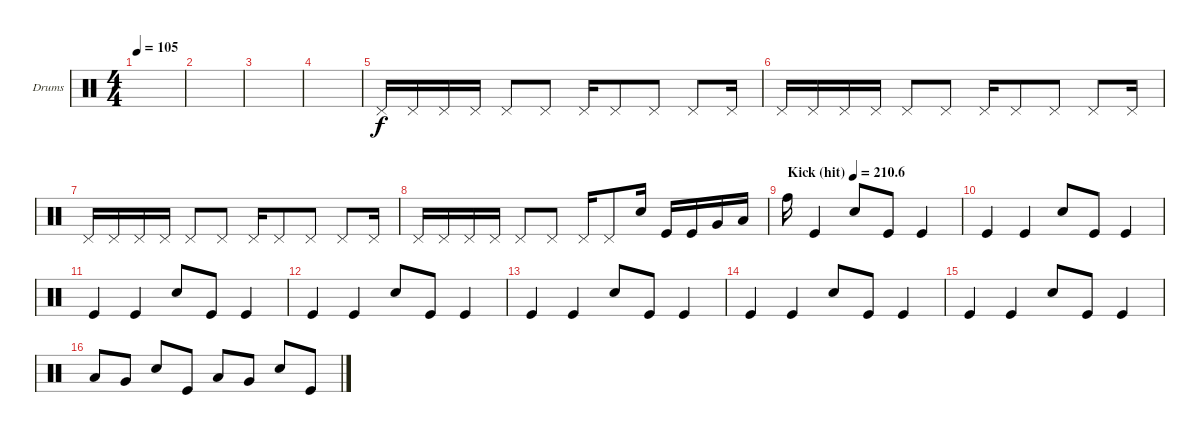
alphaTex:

\defaultSystemsLayout 4
\bracketExtendMode groupsimilarinstruments
\firstSystemTrackNameOrientation horizontal
\otherSystemsTrackNameOrientation horizontal
\track ("Drumkit" "Drums") {instrument percussion}
\staff {score}
\articulation defaults
\ts (4 4)
\tempo 105
\clef neutral
\ks c
|
|
|
|
"Pedal Hi-Hat (hit)".16 "Pedal Hi-Hat (hit)".16 "Pedal Hi-Hat (hit)".16 "Pedal Hi-Hat (hit)".16 "Pedal Hi-Hat (hit)".8 "Pedal Hi-Hat (hit)".8 "Pedal Hi-Hat (hit)".16 "Pedal Hi-Hat (hit)".8 "Pedal Hi-Hat (hit)".8 "Pedal Hi-Hat (hit)".8 "Pedal Hi-Hat (hit)".16 |
"Pedal Hi-Hat (hit)".16 "Pedal Hi-Hat (hit)".16 "Pedal Hi-Hat (hit)".16 "Pedal Hi-Hat (hit)".16 "Pedal Hi-Hat (hit)".8 "Pedal Hi-Hat (hit)".8 "Pedal Hi-Hat (hit)".16 "Pedal Hi-Hat (hit)".8 "Pedal Hi-Hat (hit)".8 "Pedal Hi-Hat (hit)".8 "Pedal Hi-Hat (hit)".16 |
"Pedal Hi-Hat (hit)".16 "Pedal Hi-Hat (hit)".16 "Pedal Hi-Hat (hit)".16 "Pedal Hi-Hat (hit)".16 "Pedal Hi-Hat (hit)".8 "Pedal Hi-Hat (hit)".8 "Pedal Hi-Hat (hit)".16 "Pedal Hi-Hat (hit)".8 "Pedal Hi-Hat (hit)".8 "Pedal Hi-Hat (hit)".8 "Pedal Hi-Hat (hit)".16 |
"Pedal Hi-Hat (hit)".16 "Pedal Hi-Hat (hit)".16 "Pedal Hi-Hat (hit)".16 "Pedal Hi-Hat (hit)".16 "Pedal Hi-Hat (hit)".8 "Pedal Hi-Hat (hit)".8 "Pedal Hi-Hat (hit)".16 "Pedal Hi-Hat (hit)".8 "Snare (hit) 2".16 "Kick (hit)".16 "Kick (hit)".16 "Very Low Tom (hit)".16 "Low Tom (hit)".16 |
\tempo
210.6 "Kick (hit)".4 "Kick (hit)".4 "Snare (hit) 2".8 "Kick (hit)".8 "Kick (hit)".4 |
"Kick (hit)".4 "Kick (hit)".4 "Snare (hit) 2".8 "Kick (hit)".8 "Kick (hit)".4 |
"Kick (hit)".4 "Kick (hit)".4 "Snare (hit) 2".8 "Kick (hit)".8 "Kick (hit)".4 |
"Kick (hit)".4 "Kick (hit)".4 "Snare (hit) 2".8 "Kick (hit)".8 "Kick (hit)".4 |
"Kick (hit)".4 "Kick (hit)".4 "Snare (hit) 2".8 "Kick (hit)".8 "Kick (hit)".4 |
"Kick (hit)".4 "Kick (hit)".4 "Snare (hit) 2".8 "Kick (hit)".8 "Kick (hit)".4 |
"Kick (hit)".4 "Kick (hit)".4 "Snare (hit) 2".8 "Kick (hit)".8 "Kick (hit)".4 |
"Low Tom (hit)".8 "Very Low Tom (hit)".8 "Snare (hit) 2".8 "Kick (hit)".8 "Low Tom (hit)".8 "Very Low Tom (hit)".8 "Snare (hit) 2".8 "Kick (hit)".8
